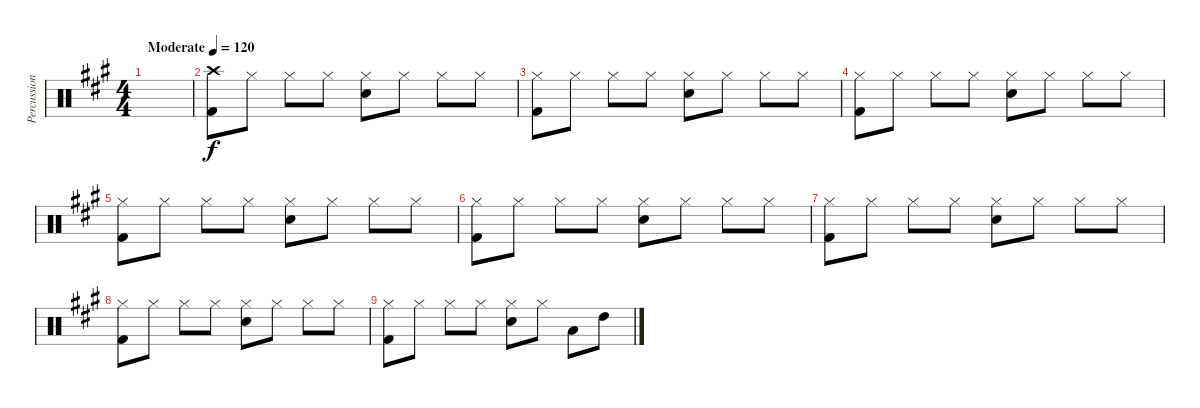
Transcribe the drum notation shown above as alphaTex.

\track ("Percussions" "Percussion") {instrument percussion}
\staff {score}
\articulation defaults
\ts (4 4)
\tempo (120 "Moderate")
\clef neutral
\ks a
|
("Kick (hit) 2" "Crash high (hit)").8 "Hi-Hat (closed)".8 "Hi-Hat (closed)".8 "Hi-Hat (closed)".8 ("Snare (hit) 2" "Hi-Hat (closed)").8 "Hi-Hat (closed)".8 "Hi-Hat (closed)".8 "Hi-Hat (closed)".8 |
("Kick (hit) 2" "Hi-Hat (closed)").8 "Hi-Hat (closed)".8 "Hi-Hat (closed)".8 "Hi-Hat (closed)".8 ("Snare (hit) 2" "Hi-Hat (closed)").8 "Hi-Hat (closed)".8 "Hi-Hat (closed)".8 "Hi-Hat (closed)".8 |
("Kick (hit) 2" "Hi-Hat (closed)").8 "Hi-Hat (closed)".8 "Hi-Hat (closed)".8 "Hi-Hat (closed)".8 ("Snare (hit) 2" "Hi-Hat (closed)").8 "Hi-Hat (closed)".8 "Hi-Hat (closed)".8 "Hi-Hat (closed)".8 |
("Kick (hit) 2" "Hi-Hat (closed)").8 "Hi-Hat (closed)".8 "Hi-Hat (closed)".8 "Hi-Hat (closed)".8 ("Snare (hit) 2" "Hi-Hat (closed)").8 "Hi-Hat (closed)".8 "Hi-Hat (closed)".8 "Hi-Hat (closed)".8 |
("Kick (hit) 2" "Hi-Hat (closed)").8 "Hi-Hat (closed)".8 "Hi-Hat (closed)".8 "Hi-Hat (closed)".8 ("Snare (hit) 2" "Hi-Hat (closed)").8 "Hi-Hat (closed)".8 "Hi-Hat (closed)".8 "Hi-Hat (closed)".8 |
("Kick (hit) 2" "Hi-Hat (closed)").8 "Hi-Hat (closed)".8 "Hi-Hat (closed)".8 "Hi-Hat (closed)".8 ("Snare (hit) 2" "Hi-Hat (closed)").8 "Hi-Hat (closed)".8 "Hi-Hat (closed)".8 "Hi-Hat (closed)".8 |
("Kick (hit) 2" "Hi-Hat (closed)").8 "Hi-Hat (closed)".8 "Hi-Hat (closed)".8 "Hi-Hat (closed)".8 ("Snare (hit) 2" "Hi-Hat (closed)").8 "Hi-Hat (closed)".8 "Hi-Hat (closed)".8 "Hi-Hat (closed)".8 |
("Kick (hit) 2" "Hi-Hat (closed)").8 "Hi-Hat (closed)".8 "Hi-Hat (closed)".8 "Hi-Hat (closed)".8 ("Snare (hit) 2" "Hi-Hat (closed)").8 "Hi-Hat (closed)".8 "Low Tom (hit)".8 "High Tom (hit)".8
